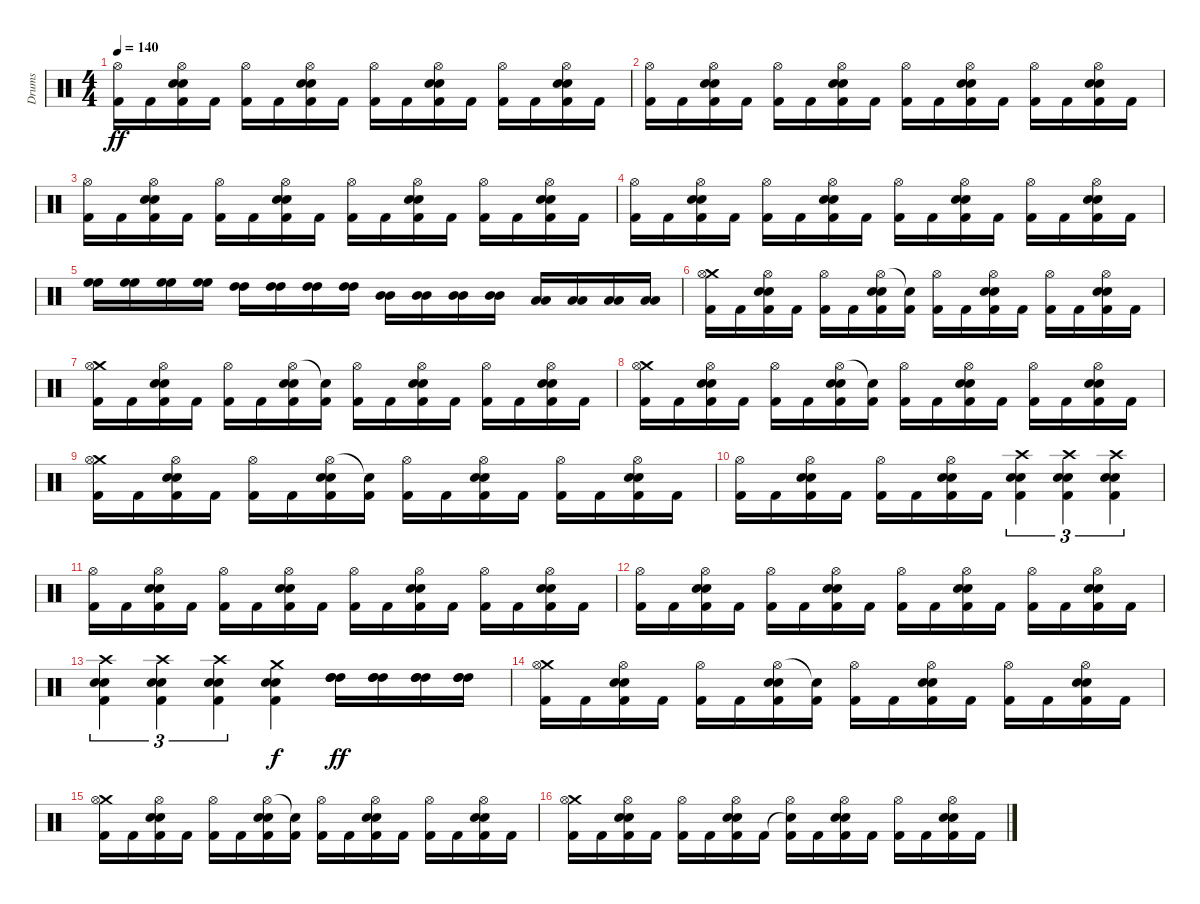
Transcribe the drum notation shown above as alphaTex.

\track ("Drums" "Drums") {instrument percussion}
\staff {score}
\articulation defaults
\ts (4 4)
\tempo 140
\clef neutral
\ks c
("Hi-Hat (open)" "Kick (hit) 2").16{dy ff} "Kick (hit) 2".16 ("Hi-Hat (open)" "Electric Snare (hit)" "Electric Snare (hit)" "Kick (hit) 2").16 "Kick (hit) 2".16 ("Hi-Hat (open)" "Kick (hit) 2").16 "Kick (hit) 2".16 ("Hi-Hat (open)" "Electric Snare (hit)" "Electric Snare (hit)" "Kick (hit) 2").16 "Kick (hit) 2".16 ("Hi-Hat (open)" "Kick (hit) 2").16 "Kick (hit) 2".16 ("Hi-Hat (open)" "Electric Snare (hit)" "Electric Snare (hit)" "Kick (hit) 2").16 "Kick (hit) 2".16 ("Hi-Hat (open)" "Kick (hit) 2").16 "Kick (hit) 2".16 ("Hi-Hat (open)" "Electric Snare (hit)" "Electric Snare (hit)" "Kick (hit) 2").16 "Kick (hit) 2".16 |
("Hi-Hat (open)" "Kick (hit) 2").16 "Kick (hit) 2".16 ("Hi-Hat (open)" "Electric Snare (hit)" "Electric Snare (hit)" "Kick (hit) 2").16 "Kick (hit) 2".16 ("Hi-Hat (open)" "Kick (hit) 2").16 "Kick (hit) 2".16 ("Hi-Hat (open)" "Electric Snare (hit)" "Electric Snare (hit)" "Kick (hit) 2").16 "Kick (hit) 2".16 ("Hi-Hat (open)" "Kick (hit) 2").16 "Kick (hit) 2".16 ("Hi-Hat (open)" "Electric Snare (hit)" "Electric Snare (hit)" "Kick (hit) 2").16 "Kick (hit) 2".16 ("Hi-Hat (open)" "Kick (hit) 2").16 "Kick (hit) 2".16 ("Hi-Hat (open)" "Electric Snare (hit)" "Electric Snare (hit)" "Kick (hit) 2").16 "Kick (hit) 2".16 |
("Hi-Hat (open)" "Kick (hit) 2").16 "Kick (hit) 2".16 ("Hi-Hat (open)" "Electric Snare (hit)" "Electric Snare (hit)" "Kick (hit) 2").16 "Kick (hit) 2".16 ("Hi-Hat (open)" "Kick (hit) 2").16 "Kick (hit) 2".16 ("Hi-Hat (open)" "Electric Snare (hit)" "Electric Snare (hit)" "Kick (hit) 2").16 "Kick (hit) 2".16 ("Hi-Hat (open)" "Kick (hit) 2").16 "Kick (hit) 2".16 ("Hi-Hat (open)" "Electric Snare (hit)" "Electric Snare (hit)" "Kick (hit) 2").16 "Kick (hit) 2".16 ("Hi-Hat (open)" "Kick (hit) 2").16 "Kick (hit) 2".16 ("Hi-Hat (open)" "Electric Snare (hit)" "Electric Snare (hit)" "Kick (hit) 2").16 "Kick (hit) 2".16 |
("Hi-Hat (open)" "Kick (hit) 2").16 "Kick (hit) 2".16 ("Hi-Hat (open)" "Electric Snare (hit)" "Electric Snare (hit)" "Kick (hit) 2").16 "Kick (hit) 2".16 ("Hi-Hat (open)" "Kick (hit) 2").16 "Kick (hit) 2".16 ("Hi-Hat (open)" "Electric Snare (hit)" "Electric Snare (hit)" "Kick (hit) 2").16 "Kick (hit) 2".16 ("Hi-Hat (open)" "Kick (hit) 2").16 "Kick (hit) 2".16 ("Hi-Hat (open)" "Electric Snare (hit)" "Electric Snare (hit)" "Kick (hit) 2").16 "Kick (hit) 2".16 ("Hi-Hat (open)" "Kick (hit) 2").16 "Kick (hit) 2".16 ("Hi-Hat (open)" "Electric Snare (hit)" "Electric Snare (hit)" "Kick (hit) 2").16 "Kick (hit) 2".16 |
("High Floor Tom (hit)" "High Floor Tom (hit)").16 ("High Floor Tom (hit)" "High Floor Tom (hit)").16 ("High Floor Tom (hit)" "High Floor Tom (hit)").16 ("High Floor Tom (hit)" "High Floor Tom (hit)").16 ("High Tom (hit)" "High Tom (hit)").16 ("High Tom (hit)" "High Tom (hit)").16 ("High Tom (hit)" "High Tom (hit)").16 ("High Tom (hit)" "High Tom (hit)").16 ("Mid Tom (hit)" "Mid Tom (hit)").16 ("Mid Tom (hit)" "Mid Tom (hit)").16 ("Mid Tom (hit)" "Mid Tom (hit)").16 ("Mid Tom (hit)" "Mid Tom (hit)").16 ("Low Tom (hit)" "Low Tom (hit)").16 ("Low Tom (hit)" "Low Tom (hit)").16 ("Low Tom (hit)" "Low Tom (hit)").16 ("Low Tom (hit)" "Low Tom (hit)").16 |
("Crash medium (hit)" "Hi-Hat (open)" "Kick (hit) 2").16 "Kick (hit) 2".16 ("Hi-Hat (open)" "Electric Snare (hit)" "Electric Snare (hit)" "Kick (hit) 2").16 "Kick (hit) 2".16 ("Hi-Hat (open)" "Kick (hit) 2").16 "Kick (hit) 2".16 ("Hi-Hat (open)" "Electric Snare (hit)" "Electric Snare (hit)" "Kick (hit) 2").16 ("Snare (hit)"{t} "Kick (hit) 2").16 ("Hi-Hat (open)" "Kick (hit) 2").16 "Kick (hit) 2".16 ("Hi-Hat (open)" "Electric Snare (hit)" "Electric Snare (hit)" "Kick (hit) 2").16 "Kick (hit) 2".16 ("Hi-Hat (open)" "Kick (hit) 2").16 "Kick (hit) 2".16 ("Hi-Hat (open)" "Electric Snare (hit)" "Electric Snare (hit)" "Kick (hit) 2").16 "Kick (hit) 2".16 |
("Crash medium (hit)" "Hi-Hat (open)" "Kick (hit) 2").16 "Kick (hit) 2".16 ("Hi-Hat (open)" "Electric Snare (hit)" "Electric Snare (hit)" "Kick (hit) 2").16 "Kick (hit) 2".16 ("Hi-Hat (open)" "Kick (hit) 2").16 "Kick (hit) 2".16 ("Hi-Hat (open)" "Electric Snare (hit)" "Electric Snare (hit)" "Kick (hit) 2").16 ("Snare (hit)"{t} "Kick (hit) 2").16 ("Hi-Hat (open)" "Kick (hit) 2").16 "Kick (hit) 2".16 ("Hi-Hat (open)" "Electric Snare (hit)" "Electric Snare (hit)" "Kick (hit) 2").16 "Kick (hit) 2".16 ("Hi-Hat (open)" "Kick (hit) 2").16 "Kick (hit) 2".16 ("Hi-Hat (open)" "Electric Snare (hit)" "Electric Snare (hit)" "Kick (hit) 2").16 "Kick (hit) 2".16 |
("Crash medium (hit)" "Hi-Hat (open)" "Kick (hit) 2").16 "Kick (hit) 2".16 ("Hi-Hat (open)" "Electric Snare (hit)" "Electric Snare (hit)" "Kick (hit) 2").16 "Kick (hit) 2".16 ("Hi-Hat (open)" "Kick (hit) 2").16 "Kick (hit) 2".16 ("Hi-Hat (open)" "Electric Snare (hit)" "Electric Snare (hit)" "Kick (hit) 2").16 ("Snare (hit)"{t} "Kick (hit) 2").16 ("Hi-Hat (open)" "Kick (hit) 2").16 "Kick (hit) 2".16 ("Hi-Hat (open)" "Electric Snare (hit)" "Electric Snare (hit)" "Kick (hit) 2").16 "Kick (hit) 2".16 ("Hi-Hat (open)" "Kick (hit) 2").16 "Kick (hit) 2".16 ("Hi-Hat (open)" "Electric Snare (hit)" "Electric Snare (hit)" "Kick (hit) 2").16 "Kick (hit) 2".16 |
("Crash medium (hit)" "Hi-Hat (open)" "Kick (hit) 2").16 "Kick (hit) 2".16 ("Hi-Hat (open)" "Electric Snare (hit)" "Electric Snare (hit)" "Kick (hit) 2").16 "Kick (hit) 2".16 ("Hi-Hat (open)" "Kick (hit) 2").16 "Kick (hit) 2".16 ("Hi-Hat (open)" "Electric Snare (hit)" "Electric Snare (hit)" "Kick (hit) 2").16 ("Snare (hit)"{t} "Kick (hit) 2").16 ("Hi-Hat (open)" "Kick (hit) 2").16 "Kick (hit) 2".16 ("Hi-Hat (open)" "Electric Snare (hit)" "Electric Snare (hit)" "Kick (hit) 2").16 "Kick (hit) 2".16 ("Hi-Hat (open)" "Kick (hit) 2").16 "Kick (hit) 2".16 ("Hi-Hat (open)" "Electric Snare (hit)" "Electric Snare (hit)" "Kick (hit) 2").16 "Kick (hit) 2".16 |
("Hi-Hat (open)" "Kick (hit) 2").16 "Kick (hit) 2".16 ("Hi-Hat (open)" "Electric Snare (hit)" "Electric Snare (hit)" "Kick (hit) 2").16 "Kick (hit) 2".16 ("Hi-Hat (open)" "Kick (hit) 2").16 "Kick (hit) 2".16 ("Hi-Hat (open)" "Electric Snare (hit)" "Electric Snare (hit)" "Kick (hit) 2").16 "Kick (hit) 2".16 ("Crash high (hit)" "Electric Snare (hit)" "Electric Snare (hit)" "Kick (hit) 2").4{tu (3 2)} ("Crash high (hit)" "Electric Snare (hit)" "Electric Snare (hit)" "Kick (hit) 2").4{tu (3 2)} ("Crash high (hit)" "Electric Snare (hit)" "Electric Snare (hit)" "Kick (hit) 2").4{tu (3 2)} |
("Hi-Hat (open)" "Kick (hit) 2").16 "Kick (hit) 2".16 ("Hi-Hat (open)" "Electric Snare (hit)" "Electric Snare (hit)" "Kick (hit) 2").16 "Kick (hit) 2".16 ("Hi-Hat (open)" "Kick (hit) 2").16 "Kick (hit) 2".16 ("Hi-Hat (open)" "Electric Snare (hit)" "Electric Snare (hit)" "Kick (hit) 2").16 "Kick (hit) 2".16 ("Hi-Hat (open)" "Kick (hit) 2").16 "Kick (hit) 2".16 ("Hi-Hat (open)" "Electric Snare (hit)" "Electric Snare (hit)" "Kick (hit) 2").16 "Kick (hit) 2".16 ("Hi-Hat (open)" "Kick (hit) 2").16 "Kick (hit) 2".16 ("Hi-Hat (open)" "Electric Snare (hit)" "Electric Snare (hit)" "Kick (hit) 2").16 "Kick (hit) 2".16 |
("Hi-Hat (open)" "Kick (hit) 2").16 "Kick (hit) 2".16 ("Hi-Hat (open)" "Electric Snare (hit)" "Electric Snare (hit)" "Kick (hit) 2").16 "Kick (hit) 2".16 ("Hi-Hat (open)" "Kick (hit) 2").16 "Kick (hit) 2".16 ("Hi-Hat (open)" "Electric Snare (hit)" "Electric Snare (hit)" "Kick (hit) 2").16 "Kick (hit) 2".16 ("Hi-Hat (open)" "Kick (hit) 2").16 "Kick (hit) 2".16 ("Hi-Hat (open)" "Electric Snare (hit)" "Electric Snare (hit)" "Kick (hit) 2").16 "Kick (hit) 2".16 ("Hi-Hat (open)" "Kick (hit) 2").16 "Kick (hit) 2".16 ("Hi-Hat (open)" "Electric Snare (hit)" "Electric Snare (hit)" "Kick (hit) 2").16 "Kick (hit) 2".16 |
("Crash high (hit)" "Electric Snare (hit)" "Electric Snare (hit)" "Kick (hit) 2").4{tu (3 2)} ("Crash high (hit)" "Electric Snare (hit)" "Electric Snare (hit)" "Kick (hit) 2").4{tu (3 2)} ("Crash high (hit)" "Electric Snare (hit)" "Electric Snare (hit)" "Kick (hit) 2").4{tu (3 2)} ("Crash medium (hit)" "Electric Snare (hit)" "Electric Snare (hit)" "Kick (hit) 2").4{dy f} ("High Tom (hit)" "High Tom (hit)" "High Tom (hit)").16{dy ff} ("High Tom (hit)" "High Tom (hit)" "High Tom (hit)").16 ("High Tom (hit)" "High Tom (hit)" "High Tom (hit)").16 ("High Tom (hit)" "High Tom (hit)" "High Tom (hit)").16 |
("Crash medium (hit)" "Hi-Hat (open)" "Kick (hit) 2").16 "Kick (hit) 2".16 ("Hi-Hat (open)" "Electric Snare (hit)" "Electric Snare (hit)" "Kick (hit) 2").16 "Kick (hit) 2".16 ("Hi-Hat (open)" "Kick (hit) 2").16 "Kick (hit) 2".16 ("Hi-Hat (open)" "Electric Snare (hit)" "Electric Snare (hit)" "Kick (hit) 2").16 ("Snare (hit)"{t} "Kick (hit) 2").16 ("Hi-Hat (open)" "Kick (hit) 2").16 "Kick (hit) 2".16 ("Hi-Hat (open)" "Electric Snare (hit)" "Electric Snare (hit)" "Kick (hit) 2").16 "Kick (hit) 2".16 ("Hi-Hat (open)" "Kick (hit) 2").16 "Kick (hit) 2".16 ("Hi-Hat (open)" "Electric Snare (hit)" "Electric Snare (hit)" "Kick (hit) 2").16 "Kick (hit) 2".16 |
("Crash medium (hit)" "Hi-Hat (open)" "Kick (hit) 2").16 "Kick (hit) 2".16 ("Hi-Hat (open)" "Electric Snare (hit)" "Electric Snare (hit)" "Kick (hit) 2").16 "Kick (hit) 2".16 ("Hi-Hat (open)" "Kick (hit) 2").16 "Kick (hit) 2".16 ("Hi-Hat (open)" "Electric Snare (hit)" "Electric Snare (hit)" "Kick (hit) 2").16 ("Snare (hit)"{t} "Kick (hit) 2").16 ("Hi-Hat (open)" "Kick (hit) 2").16 "Kick (hit) 2".16 ("Hi-Hat (open)" "Electric Snare (hit)" "Electric Snare (hit)" "Kick (hit) 2").16 "Kick (hit) 2".16 ("Hi-Hat (open)" "Kick (hit) 2").16 "Kick (hit) 2".16 ("Hi-Hat (open)" "Electric Snare (hit)" "Electric Snare (hit)" "Kick (hit) 2").16 "Kick (hit) 2".16 |
("Crash medium (hit)" "Hi-Hat (open)" "Kick (hit) 2").16 "Kick (hit) 2".16 ("Hi-Hat (open)" "Electric Snare (hit)" "Electric Snare (hit)" "Kick (hit) 2").16 "Kick (hit) 2".16 ("Hi-Hat (open)" "Kick (hit) 2").16 "Kick (hit) 2".16 ("Hi-Hat (open)" "Electric Snare (hit)" "Electric Snare (hit)" "Kick (hit) 2").16 "Kick (hit) 2".16 ("Snare (hit)"{t} "Hi-Hat (open)" "Kick (hit) 2").16 "Kick (hit) 2".16 ("Hi-Hat (open)" "Electric Snare (hit)" "Electric Snare (hit)" "Kick (hit) 2").16 "Kick (hit) 2".16 ("Hi-Hat (open)" "Kick (hit) 2").16 "Kick (hit) 2".16 ("Hi-Hat (open)" "Electric Snare (hit)" "Electric Snare (hit)" "Kick (hit) 2").16 "Kick (hit) 2".16
